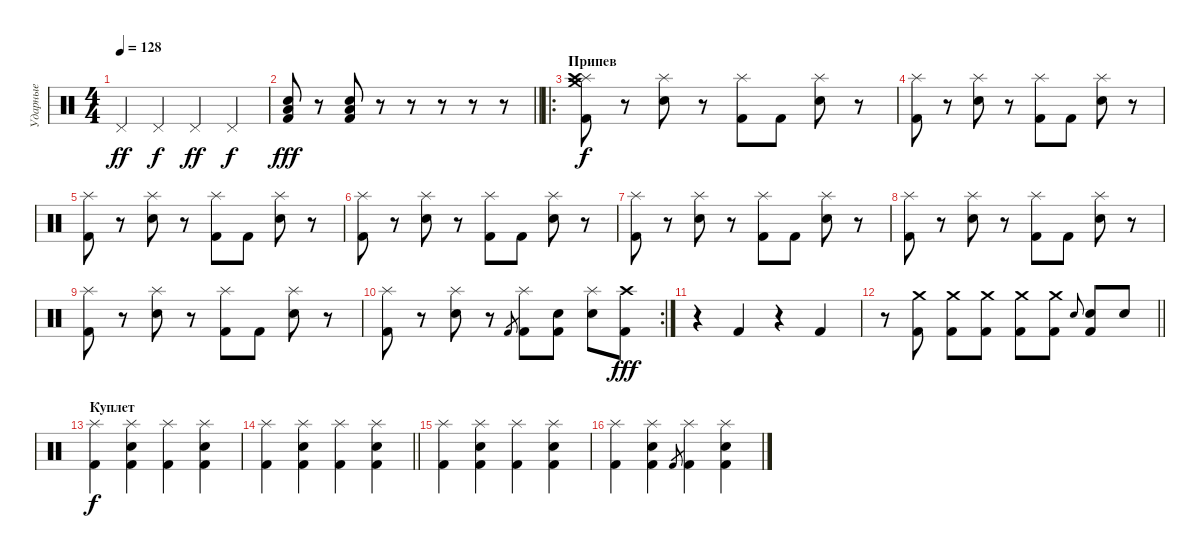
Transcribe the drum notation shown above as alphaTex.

\track ("Ударные" "Ударные") {instrument percussion}
\staff {score}
\articulation defaults
\ts (4 4)
\tempo 128
\clef neutral
\ks c "Pedal Hi-Hat (hit)".4{dy ff} "Pedal Hi-Hat (hit)".4{dy f} "Pedal Hi-Hat (hit)".4{dy ff} "Pedal Hi-Hat (hit)".4{dy f}
|
\barLineRight lightlight
("Low Floor Tom (hit)" "Electric Snare (hit)" "Kick (hit) 2").8{dy fff} r.8 ("Low Floor Tom (hit)" "Kick (hit) 2" "Electric Snare (hit)").8 r.8 r.8 r.8 r.8 r.8 |
\ro
\section ("" "Припев")
("Splash (hit)" "Crash high (hit)" "Crash medium (hit)" "Kick (hit) 2").8{dy f} r.8 ("Splash (hit)" "Electric Snare (hit)").8 r.8 ("Splash (hit)" "Kick (hit) 2").8 "Kick (hit) 2".8 ("Splash (hit)" "Electric Snare (hit)").8 r.8 |
("Splash (hit)" "Kick (hit) 2").8 r.8 ("Splash (hit)" "Electric Snare (hit)").8 r.8 ("Splash (hit)" "Kick (hit) 2").8 "Kick (hit) 2".8 ("Splash (hit)" "Electric Snare (hit)").8 r.8 |
("Splash (hit)" "Kick (hit) 2").8 r.8 ("Splash (hit)" "Electric Snare (hit)").8 r.8 ("Splash (hit)" "Kick (hit) 2").8 "Kick (hit) 2".8 ("Splash (hit)" "Electric Snare (hit)").8 r.8 |
("Splash (hit)" "Kick (hit) 2").8 r.8 ("Splash (hit)" "Electric Snare (hit)").8 r.8 ("Splash (hit)" "Kick (hit) 2").8 "Kick (hit) 2".8 ("Splash (hit)" "Electric Snare (hit)").8 r.8 |
("Splash (hit)" "Kick (hit) 2").8 r.8 ("Splash (hit)" "Electric Snare (hit)").8 r.8 ("Splash (hit)" "Kick (hit) 2").8 "Kick (hit) 2".8 ("Splash (hit)" "Electric Snare (hit)").8 r.8 |
("Splash (hit)" "Kick (hit) 2").8 r.8 ("Splash (hit)" "Electric Snare (hit)").8 r.8 ("Splash (hit)" "Kick (hit) 2").8 "Kick (hit) 2".8 ("Splash (hit)" "Electric Snare (hit)").8 r.8 |
("Splash (hit)" "Kick (hit) 2").8 r.8 ("Splash (hit)" "Electric Snare (hit)").8 r.8 ("Splash (hit)" "Kick (hit) 2").8 "Kick (hit) 2".8 ("Splash (hit)" "Electric Snare (hit)").8 r.8 |
\rc 2
("Splash (hit)" "Kick (hit) 2").8 r.8 ("Splash (hit)" "Electric Snare (hit)").8 r.8 "Kick (hit) 2".8{gr} ("Splash (hit)" "Kick (hit) 2").8 ("Electric Snare (hit)" "Kick (hit) 2").8 ("Splash (hit)" "Electric Snare (hit)").8 ("Crash high (hit)" "Kick (hit) 2").8{dy fff} |
r.4 "Kick (hit) 2".4 r.4 "Kick (hit) 2".4 |
\barLineRight lightlight
r.8 ("Crash medium (hit)" "Kick (hit) 2").8 ("Crash medium (hit)" "Kick (hit) 2").8 ("Crash medium (hit)" "Kick (hit) 2").8 ("Crash medium (hit)" "Kick (hit) 2").8 ("Crash medium (hit)" "Kick (hit) 2").8 "Electric Snare (hit)".8{gr onbeat} ("Electric Snare (hit)" "Kick (hit) 2").8 "Electric Snare (hit)".8 |
\section ("" "Куплет")
("Splash (hit)" "Kick (hit) 2").4{dy f} ("Splash (hit)" "Electric Snare (hit)" "Kick (hit) 2").4 ("Splash (hit)" "Kick (hit) 2").4 ("Splash (hit)" "Electric Snare (hit)" "Kick (hit) 2").4 |
\barLineRight lightlight
("Splash (hit)" "Kick (hit) 2").4 ("Splash (hit)" "Electric Snare (hit)" "Kick (hit) 2").4 ("Splash (hit)" "Kick (hit) 2").4 ("Splash (hit)" "Electric Snare (hit)" "Kick (hit) 2").4 |
("Splash (hit)" "Kick (hit) 2").4 ("Splash (hit)" "Electric Snare (hit)" "Kick (hit) 2").4 ("Splash (hit)" "Kick (hit) 2").4 ("Splash (hit)" "Electric Snare (hit)" "Kick (hit) 2").4 |
("Splash (hit)" "Kick (hit) 2").4 ("Splash (hit)" "Electric Snare (hit)" "Kick (hit) 2").4 "Kick (hit) 2".8{gr} ("Splash (hit)" "Kick (hit) 2").4 ("Splash (hit)" "Electric Snare (hit)" "Kick (hit) 2").4
